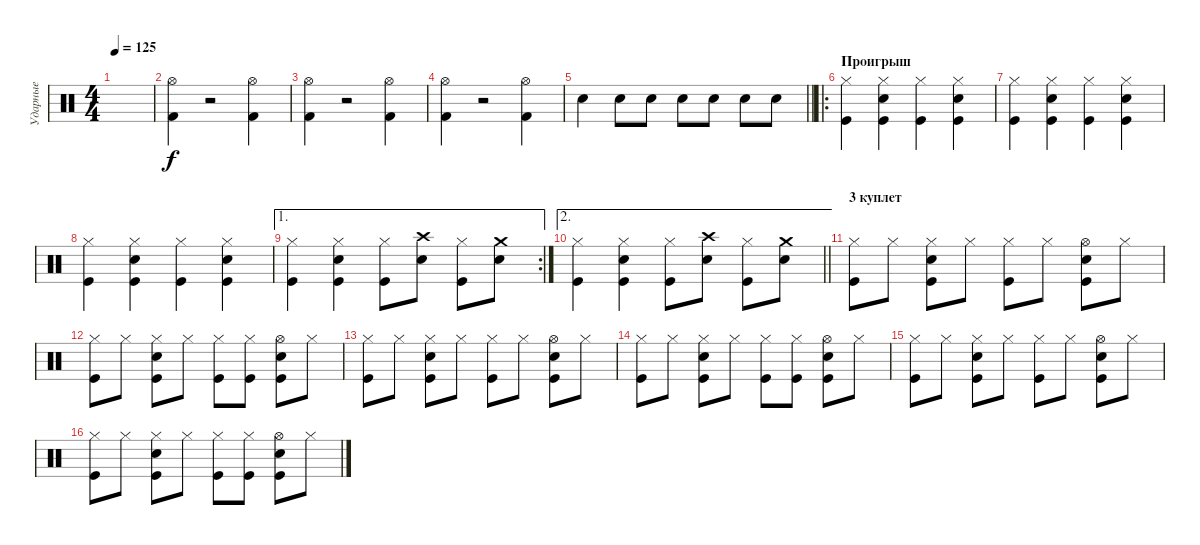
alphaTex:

\track ("Ударные" "Ударные") {instrument percussion}
\staff {score}
\articulation defaults
\ts (4 4)
\tempo 125
\clef neutral
\ks c
|
("Kick (hit) 2" "Hi-Hat (open)").4 r.2 ("Kick (hit) 2" "Hi-Hat (open)").4 |
("Kick (hit) 2" "Hi-Hat (open)").4 r.2 ("Kick (hit) 2" "Hi-Hat (open)").4 |
("Kick (hit) 2" "Hi-Hat (open)").4 r.2 ("Kick (hit) 2" "Hi-Hat (open)").4 |
\barLineRight lightlight "Snare (hit) 2".4 "Snare (hit) 2".8 "Snare (hit) 2".8 "Snare (hit) 2".8 "Snare (hit) 2".8 "Snare (hit) 2".8 "Snare (hit) 2".8
|
\ro
\section ("" "Проигрыш")
("Kick (hit)" "Hi-Hat (closed)").4 ("Kick (hit)" "Snare (hit) 2" "Hi-Hat (closed)").4 ("Kick (hit)" "Hi-Hat (closed)").4 ("Kick (hit)" "Snare (hit) 2" "Hi-Hat (closed)").4 |
("Kick (hit)" "Hi-Hat (closed)").4 ("Kick (hit)" "Snare (hit) 2" "Hi-Hat (closed)").4 ("Kick (hit)" "Hi-Hat (closed)").4 ("Kick (hit)" "Snare (hit) 2" "Hi-Hat (closed)").4 |
("Kick (hit)" "Hi-Hat (closed)").4 ("Kick (hit)" "Snare (hit) 2" "Hi-Hat (closed)").4 ("Kick (hit)" "Hi-Hat (closed)").4 ("Kick (hit)" "Snare (hit) 2" "Hi-Hat (closed)").4 |
\ae 1
\rc 2
("Kick (hit)" "Hi-Hat (closed)").4 ("Kick (hit)" "Snare (hit) 2" "Hi-Hat (closed)").4 ("Kick (hit)" "Hi-Hat (closed)").8 ("Snare (hit) 2" "Crash high (hit)").8 ("Kick (hit)" "Hi-Hat (closed)").8 ("Snare (hit) 2" "Crash medium (hit)").8 |
\ae 2
\barLineRight lightlight
("Kick (hit)" "Hi-Hat (closed)").4 ("Kick (hit)" "Snare (hit) 2" "Hi-Hat (closed)").4 ("Kick (hit)" "Hi-Hat (closed)").8 ("Snare (hit) 2" "Crash high (hit)").8 ("Kick (hit)" "Hi-Hat (closed)").8 ("Snare (hit) 2" "Crash medium (hit)").8 |
\section ("" "3 куплет")
("Hi-Hat (closed)" "Kick (hit)").8 "Hi-Hat (closed)".8 ("Hi-Hat (closed)" "Kick (hit)" "Snare (hit) 2").8 "Hi-Hat (closed)".8 ("Hi-Hat (closed)" "Kick (hit)").8 "Hi-Hat (closed)".8 ("Hi-Hat (open)" "Kick (hit)" "Snare (hit) 2").8 "Hi-Hat (closed)".8 |
("Hi-Hat (closed)" "Kick (hit)").8 "Hi-Hat (closed)".8 ("Hi-Hat (closed)" "Kick (hit)" "Snare (hit) 2").8 "Hi-Hat (closed)".8 ("Hi-Hat (closed)" "Kick (hit)").8 ("Hi-Hat (closed)" "Kick (hit)").8 ("Hi-Hat (open)" "Kick (hit)" "Snare (hit) 2").8 "Hi-Hat (closed)".8 |
("Hi-Hat (closed)" "Kick (hit)").8 "Hi-Hat (closed)".8 ("Hi-Hat (closed)" "Kick (hit)" "Snare (hit) 2").8 "Hi-Hat (closed)".8 ("Hi-Hat (closed)" "Kick (hit)").8 "Hi-Hat (closed)".8 ("Hi-Hat (open)" "Kick (hit)" "Snare (hit) 2").8 "Hi-Hat (closed)".8 |
("Hi-Hat (closed)" "Kick (hit)").8 "Hi-Hat (closed)".8 ("Hi-Hat (closed)" "Kick (hit)" "Snare (hit) 2").8 "Hi-Hat (closed)".8 ("Hi-Hat (closed)" "Kick (hit)").8 ("Hi-Hat (closed)" "Kick (hit)").8 ("Hi-Hat (open)" "Kick (hit)" "Snare (hit) 2").8 "Hi-Hat (closed)".8 |
("Hi-Hat (closed)" "Kick (hit)").8 "Hi-Hat (closed)".8 ("Hi-Hat (closed)" "Kick (hit)" "Snare (hit) 2").8 "Hi-Hat (closed)".8 ("Hi-Hat (closed)" "Kick (hit)").8 "Hi-Hat (closed)".8 ("Hi-Hat (open)" "Kick (hit)" "Snare (hit) 2").8 "Hi-Hat (closed)".8 |
("Hi-Hat (closed)" "Kick (hit)").8 "Hi-Hat (closed)".8 ("Hi-Hat (closed)" "Kick (hit)" "Snare (hit) 2").8 "Hi-Hat (closed)".8 ("Hi-Hat (closed)" "Kick (hit)").8 ("Hi-Hat (closed)" "Kick (hit)").8 ("Hi-Hat (open)" "Kick (hit)" "Snare (hit) 2").8 "Hi-Hat (closed)".8
